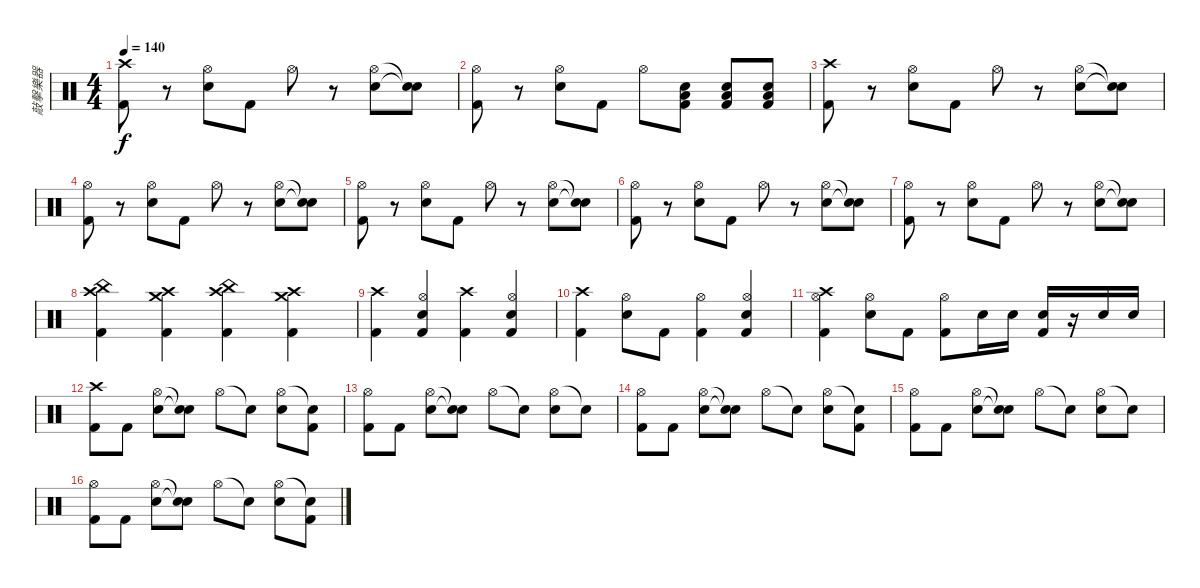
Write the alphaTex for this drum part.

\track ("敲擊樂器" "敲擊樂器") {instrument percussion}
\staff {score}
\articulation defaults
\ts (4 4)
\tempo 140
\clef neutral
\ks c
("Crash high (hit)" "Kick (hit) 2").8{dy f} r.8 ("Hi-Hat (open)" "Snare (hit) 2").8 "Kick (hit) 2".8 "Hi-Hat (open)".8 r.8 ("Hi-Hat (open)" "Snare (hit) 2").8 ("Snare (hit)"{t} "Snare (hit)"{t}).8 |
("Hi-Hat (open)" "Kick (hit) 2").8 r.8 ("Hi-Hat (open)" "Snare (hit) 2").8 "Kick (hit) 2".8 "Hi-Hat (open)".8 ("Low Tom (hit)" "Snare (hit) 2" "Kick (hit) 2").8 ("Low Tom (hit)" "Snare (hit) 2" "Kick (hit) 2").8 ("Low Tom (hit)" "Snare (hit) 2" "Kick (hit) 2").8 |
("Crash high (hit)" "Kick (hit) 2").8 r.8 ("Hi-Hat (open)" "Snare (hit) 2").8 "Kick (hit) 2".8 "Hi-Hat (open)".8 r.8 ("Hi-Hat (open)" "Snare (hit) 2").8 ("Snare (hit)"{t} "Snare (hit)"{t}).8 |
("Hi-Hat (open)" "Kick (hit) 2").8 r.8 ("Hi-Hat (open)" "Snare (hit) 2").8 "Kick (hit) 2".8 "Hi-Hat (open)".8 r.8 ("Hi-Hat (open)" "Snare (hit) 2").8 ("Snare (hit)"{t} "Snare (hit)"{t}).8 |
("Hi-Hat (open)" "Kick (hit) 2").8 r.8 ("Hi-Hat (open)" "Snare (hit) 2").8 "Kick (hit) 2".8 "Hi-Hat (open)".8 r.8 ("Hi-Hat (open)" "Snare (hit) 2").8 ("Snare (hit)"{t} "Snare (hit)"{t}).8 |
("Hi-Hat (open)" "Kick (hit) 2").8 r.8 ("Hi-Hat (open)" "Snare (hit) 2").8 "Kick (hit) 2".8 "Hi-Hat (open)".8 r.8 ("Hi-Hat (open)" "Snare (hit) 2").8 ("Snare (hit)"{t} "Snare (hit)"{t}).8 |
("Hi-Hat (open)" "Kick (hit) 2").8 r.8 ("Hi-Hat (open)" "Snare (hit) 2").8 "Kick (hit) 2".8 "Hi-Hat (open)".8 r.8 ("Hi-Hat (open)" "Snare (hit) 2").8 ("Snare (hit)"{t} "Snare (hit)"{t}).8 |
("Crash high (hit)" "China (hit)" "Kick (hit) 2").4 ("Crash high (hit)" "Crash medium (hit)" "Kick (hit) 2").4 ("Crash high (hit)" "China (hit)" "Kick (hit) 2").4 ("Crash high (hit)" "Crash medium (hit)" "Kick (hit) 2").4 |
("Crash high (hit)" "Kick (hit) 2").4 ("Hi-Hat (open)" "Snare (hit) 2" "Kick (hit) 2").4 ("Crash high (hit)" "Kick (hit) 2").4 ("Hi-Hat (open)" "Snare (hit) 2" "Kick (hit) 2").4 |
("Crash high (hit)" "Kick (hit) 2").4 ("Hi-Hat (open)" "Snare (hit) 2").8 "Kick (hit) 2".8 ("Hi-Hat (open)" "Kick (hit) 2").4 ("Hi-Hat (open)" "Snare (hit) 2" "Kick (hit) 2").4 |
("Crash high (hit)" "Hi-Hat (open)" "Kick (hit) 2").4 ("Hi-Hat (open)" "Snare (hit) 2").8 "Kick (hit) 2".8 ("Hi-Hat (open)" "Kick (hit) 2").8 "Snare (hit) 2".16 "Snare (hit) 2".16 ("Snare (hit) 2" "Kick (hit) 2").16 r.16 "Snare (hit) 2".16 "Snare (hit) 2".16 |
("Crash high (hit)" "Kick (hit) 2").8 "Kick (hit) 2".8 ("Hi-Hat (open)" "Snare (hit) 2").8 ("Snare (hit)"{t} "Snare (hit)"{t}).8 "Hi-Hat (open)".8 "Snare (hit)"{t}.8 ("Hi-Hat (open)" "Snare (hit) 2").8 ("Snare (hit)"{t} "Kick (hit) 2").8 |
("Hi-Hat (open)" "Kick (hit) 2").8 "Kick (hit) 2".8 ("Hi-Hat (open)" "Snare (hit) 2").8 ("Snare (hit)"{t} "Snare (hit)"{t}).8 "Hi-Hat (open)".8 "Snare (hit)"{t}.8 ("Hi-Hat (open)" "Snare (hit) 2").8 "Snare (hit)"{t}.8 |
("Hi-Hat (open)" "Kick (hit) 2").8 "Kick (hit) 2".8 ("Hi-Hat (open)" "Snare (hit) 2").8 ("Snare (hit)"{t} "Snare (hit)"{t}).8 "Hi-Hat (open)".8 "Snare (hit)"{t}.8 ("Hi-Hat (open)" "Snare (hit) 2").8 ("Snare (hit)"{t} "Kick (hit) 2").8 |
("Hi-Hat (open)" "Kick (hit) 2").8 "Kick (hit) 2".8 ("Hi-Hat (open)" "Snare (hit) 2").8 ("Snare (hit)"{t} "Snare (hit)"{t}).8 "Hi-Hat (open)".8 "Snare (hit)"{t}.8 ("Hi-Hat (open)" "Snare (hit) 2").8 "Snare (hit)"{t}.8 |
("Hi-Hat (open)" "Kick (hit) 2").8 "Kick (hit) 2".8 ("Hi-Hat (open)" "Snare (hit) 2").8 ("Snare (hit)"{t} "Snare (hit)"{t}).8 "Hi-Hat (open)".8 "Snare (hit)"{t}.8 ("Hi-Hat (open)" "Snare (hit) 2").8 ("Snare (hit)"{t} "Kick (hit) 2").8
